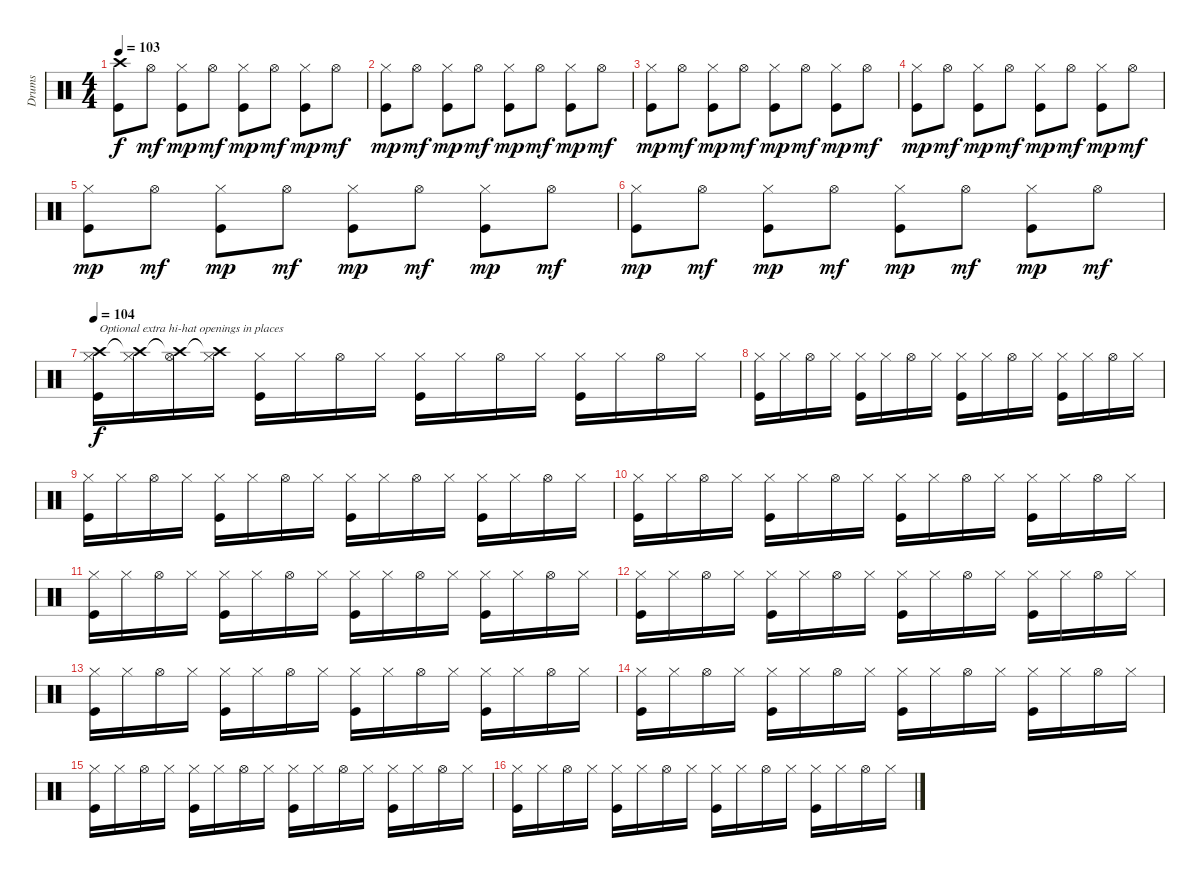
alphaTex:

\track ("Drums" "Drums") {instrument percussion}
\staff {score}
\articulation defaults
\ts (4 4)
\tempo 103
\clef neutral
\ks c
("Crash high (hit)" "Kick (hit)").8{dy f} "Hi-Hat (open)".8{dy mf} ("Hi-Hat (closed)" "Kick (hit)").8{dy mp} "Hi-Hat (open)".8{dy mf} ("Hi-Hat (closed)" "Kick (hit)").8{dy mp} "Hi-Hat (open)".8{dy mf} ("Hi-Hat (closed)" "Kick (hit)").8{dy mp} "Hi-Hat (open)".8{dy mf} |
("Hi-Hat (closed)" "Kick (hit)").8{dy mp} "Hi-Hat (open)".8{dy mf} ("Hi-Hat (closed)" "Kick (hit)").8{dy mp} "Hi-Hat (open)".8{dy mf} ("Hi-Hat (closed)" "Kick (hit)").8{dy mp} "Hi-Hat (open)".8{dy mf} ("Hi-Hat (closed)" "Kick (hit)").8{dy mp} "Hi-Hat (open)".8{dy mf} |
("Hi-Hat (closed)" "Kick (hit)").8{dy mp} "Hi-Hat (open)".8{dy mf} ("Hi-Hat (closed)" "Kick (hit)").8{dy mp} "Hi-Hat (open)".8{dy mf} ("Hi-Hat (closed)" "Kick (hit)").8{dy mp} "Hi-Hat (open)".8{dy mf} ("Hi-Hat (closed)" "Kick (hit)").8{dy mp} "Hi-Hat (open)".8{dy mf} |
("Hi-Hat (closed)" "Kick (hit)").8{dy mp} "Hi-Hat (open)".8{dy mf} ("Hi-Hat (closed)" "Kick (hit)").8{dy mp} "Hi-Hat (open)".8{dy mf} ("Hi-Hat (closed)" "Kick (hit)").8{dy mp} "Hi-Hat (open)".8{dy mf} ("Hi-Hat (closed)" "Kick (hit)").8{dy mp} "Hi-Hat (open)".8{dy mf} |
("Hi-Hat (closed)" "Kick (hit)").8{dy mp} "Hi-Hat (open)".8{dy mf} ("Hi-Hat (closed)" "Kick (hit)").8{dy mp} "Hi-Hat (open)".8{dy mf} ("Hi-Hat (closed)" "Kick (hit)").8{dy mp} "Hi-Hat (open)".8{dy mf} ("Hi-Hat (closed)" "Kick (hit)").8{dy mp} "Hi-Hat (open)".8{dy mf} |
("Hi-Hat (closed)" "Kick (hit)").8{dy mp} "Hi-Hat (open)".8{dy mf} ("Hi-Hat (closed)" "Kick (hit)").8{dy mp} "Hi-Hat (open)".8{dy mf} ("Hi-Hat (closed)" "Kick (hit)").8{dy mp} "Hi-Hat (open)".8{dy mf} ("Hi-Hat (closed)" "Kick (hit)").8{dy mp} "Hi-Hat (open)".8{dy mf} |
\tempo 104
("Hi-Hat (closed)" "Crash high (hit)" "Kick (hit)").16{txt "Optional extra hi-hat openings in places" dy f} ("Hi-Hat (closed)" "Crash high (hit)"{t}).16 ("Hi-Hat (open)" "Crash high (hit)"{t}).16 ("Hi-Hat (closed)" "Crash high (hit)"{t}).16 ("Hi-Hat (closed)" "Kick (hit)").16 "Hi-Hat (closed)".16 "Hi-Hat (open)".16 "Hi-Hat (closed)".16 ("Hi-Hat (closed)" "Kick (hit)").16 "Hi-Hat (closed)".16 "Hi-Hat (open)".16 "Hi-Hat (closed)".16 ("Hi-Hat (closed)" "Kick (hit)").16 "Hi-Hat (closed)".16 "Hi-Hat (open)".16 "Hi-Hat (closed)".16 |
("Hi-Hat (closed)" "Kick (hit)").16 "Hi-Hat (closed)".16 "Hi-Hat (open)".16 "Hi-Hat (closed)".16 ("Hi-Hat (closed)" "Kick (hit)").16 "Hi-Hat (closed)".16 "Hi-Hat (open)".16 "Hi-Hat (closed)".16 ("Hi-Hat (closed)" "Kick (hit)").16 "Hi-Hat (closed)".16 "Hi-Hat (open)".16 "Hi-Hat (closed)".16 ("Hi-Hat (closed)" "Kick (hit)").16 "Hi-Hat (closed)".16 "Hi-Hat (open)".16 "Hi-Hat (closed)".16 |
("Hi-Hat (closed)" "Kick (hit)").16 "Hi-Hat (closed)".16 "Hi-Hat (open)".16 "Hi-Hat (closed)".16 ("Hi-Hat (closed)" "Kick (hit)").16 "Hi-Hat (closed)".16 "Hi-Hat (open)".16 "Hi-Hat (closed)".16 ("Hi-Hat (closed)" "Kick (hit)").16 "Hi-Hat (closed)".16 "Hi-Hat (open)".16 "Hi-Hat (closed)".16 ("Hi-Hat (closed)" "Kick (hit)").16 "Hi-Hat (closed)".16 "Hi-Hat (open)".16 "Hi-Hat (closed)".16 |
("Hi-Hat (closed)" "Kick (hit)").16 "Hi-Hat (closed)".16 "Hi-Hat (open)".16 "Hi-Hat (closed)".16 ("Hi-Hat (closed)" "Kick (hit)").16 "Hi-Hat (closed)".16 "Hi-Hat (open)".16 "Hi-Hat (closed)".16 ("Hi-Hat (closed)" "Kick (hit)").16 "Hi-Hat (closed)".16 "Hi-Hat (open)".16 "Hi-Hat (closed)".16 ("Hi-Hat (closed)" "Kick (hit)").16 "Hi-Hat (closed)".16 "Hi-Hat (open)".16 "Hi-Hat (closed)".16 |
("Hi-Hat (closed)" "Kick (hit)").16 "Hi-Hat (closed)".16 "Hi-Hat (open)".16 "Hi-Hat (closed)".16 ("Hi-Hat (closed)" "Kick (hit)").16 "Hi-Hat (closed)".16 "Hi-Hat (open)".16 "Hi-Hat (closed)".16 ("Hi-Hat (closed)" "Kick (hit)").16 "Hi-Hat (closed)".16 "Hi-Hat (open)".16 "Hi-Hat (closed)".16 ("Hi-Hat (closed)" "Kick (hit)").16 "Hi-Hat (closed)".16 "Hi-Hat (open)".16 "Hi-Hat (closed)".16 |
("Hi-Hat (closed)" "Kick (hit)").16 "Hi-Hat (closed)".16 "Hi-Hat (open)".16 "Hi-Hat (closed)".16 ("Hi-Hat (closed)" "Kick (hit)").16 "Hi-Hat (closed)".16 "Hi-Hat (open)".16 "Hi-Hat (closed)".16 ("Hi-Hat (closed)" "Kick (hit)").16 "Hi-Hat (closed)".16 "Hi-Hat (open)".16 "Hi-Hat (closed)".16 ("Hi-Hat (closed)" "Kick (hit)").16 "Hi-Hat (closed)".16 "Hi-Hat (open)".16 "Hi-Hat (closed)".16 |
("Hi-Hat (closed)" "Kick (hit)").16 "Hi-Hat (closed)".16 "Hi-Hat (open)".16 "Hi-Hat (closed)".16 ("Hi-Hat (closed)" "Kick (hit)").16 "Hi-Hat (closed)".16 "Hi-Hat (open)".16 "Hi-Hat (closed)".16 ("Hi-Hat (closed)" "Kick (hit)").16 "Hi-Hat (closed)".16 "Hi-Hat (open)".16 "Hi-Hat (closed)".16 ("Hi-Hat (closed)" "Kick (hit)").16 "Hi-Hat (closed)".16 "Hi-Hat (open)".16 "Hi-Hat (closed)".16 |
("Hi-Hat (closed)" "Kick (hit)").16 "Hi-Hat (closed)".16 "Hi-Hat (open)".16 "Hi-Hat (closed)".16 ("Hi-Hat (closed)" "Kick (hit)").16 "Hi-Hat (closed)".16 "Hi-Hat (open)".16 "Hi-Hat (closed)".16 ("Hi-Hat (closed)" "Kick (hit)").16 "Hi-Hat (closed)".16 "Hi-Hat (open)".16 "Hi-Hat (closed)".16 ("Hi-Hat (closed)" "Kick (hit)").16 "Hi-Hat (closed)".16 "Hi-Hat (open)".16 "Hi-Hat (closed)".16 |
("Hi-Hat (closed)" "Kick (hit)").16 "Hi-Hat (closed)".16 "Hi-Hat (open)".16 "Hi-Hat (closed)".16 ("Hi-Hat (closed)" "Kick (hit)").16 "Hi-Hat (closed)".16 "Hi-Hat (open)".16 "Hi-Hat (closed)".16 ("Hi-Hat (closed)" "Kick (hit)").16 "Hi-Hat (closed)".16 "Hi-Hat (open)".16 "Hi-Hat (closed)".16 ("Hi-Hat (closed)" "Kick (hit)").16 "Hi-Hat (closed)".16 "Hi-Hat (open)".16 "Hi-Hat (closed)".16 |
("Hi-Hat (closed)" "Kick (hit)").16 "Hi-Hat (closed)".16 "Hi-Hat (open)".16 "Hi-Hat (closed)".16 ("Hi-Hat (closed)" "Kick (hit)").16 "Hi-Hat (closed)".16 "Hi-Hat (open)".16 "Hi-Hat (closed)".16 ("Hi-Hat (closed)" "Kick (hit)").16 "Hi-Hat (closed)".16 "Hi-Hat (open)".16 "Hi-Hat (closed)".16 ("Hi-Hat (closed)" "Kick (hit)").16 "Hi-Hat (closed)".16 "Hi-Hat (open)".16 "Hi-Hat (closed)".16
